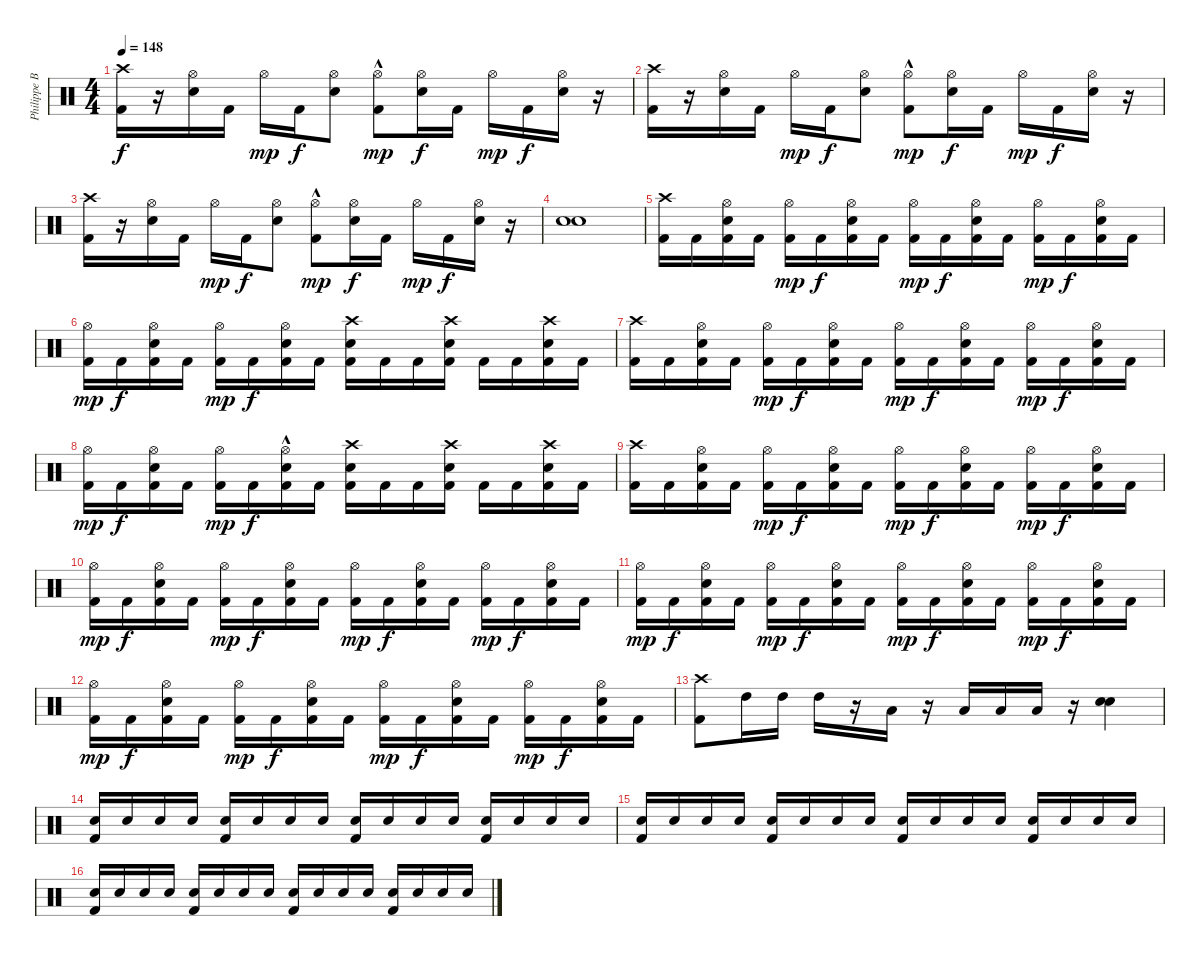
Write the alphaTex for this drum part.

\track ("Philippe Borda" "Philippe B") {instrument percussion}
\staff {score}
\articulation defaults
\ts (4 4)
\tempo 148
\clef neutral
\ks c
("Crash high (hit)" "Kick (hit) 2").16{dy f} r.16 ("Snare (hit) 2" "Hi-Hat (open)").16 "Kick (hit) 2".16 "Hi-Hat (open)".16{dy mp} "Kick (hit) 2".16{dy f} ("Snare (hit) 2" "Hi-Hat (open)").8 ("Kick (hit) 2"{hac} "Hi-Hat (open)").8{dy mp} ("Snare (hit) 2" "Hi-Hat (open)").16{dy f} "Kick (hit) 2".16 "Hi-Hat (open)".16{dy mp} "Kick (hit) 2".16{dy f} ("Snare (hit) 2" "Hi-Hat (open)").16 r.16 |
("Crash high (hit)" "Kick (hit) 2").16 r.16 ("Snare (hit) 2" "Hi-Hat (open)").16 "Kick (hit) 2".16 "Hi-Hat (open)".16{dy mp} "Kick (hit) 2".16{dy f} ("Snare (hit) 2" "Hi-Hat (open)").8 ("Kick (hit) 2"{hac} "Hi-Hat (open)").8{dy mp} ("Snare (hit) 2" "Hi-Hat (open)").16{dy f} "Kick (hit) 2".16 "Hi-Hat (open)".16{dy mp} "Kick (hit) 2".16{dy f} ("Snare (hit) 2" "Hi-Hat (open)").16 r.16 |
("Crash high (hit)" "Kick (hit) 2").16 r.16 ("Snare (hit) 2" "Hi-Hat (open)").16 "Kick (hit) 2".16 "Hi-Hat (open)".16{dy mp} "Kick (hit) 2".16{dy f} ("Snare (hit) 2" "Hi-Hat (open)").8 ("Kick (hit) 2"{hac} "Hi-Hat (open)").8{dy mp} ("Snare (hit) 2" "Hi-Hat (open)").16{dy f} "Kick (hit) 2".16 "Hi-Hat (open)".16{dy mp} "Kick (hit) 2".16{dy f} ("Snare (hit) 2" "Hi-Hat (open)").16 r.16 |
("Snare (hit) 2" "Snare (hit) 2").1 |
("Crash high (hit)" "Kick (hit) 2").16 "Kick (hit) 2".16 ("Kick (hit) 2" "Snare (hit) 2" "Hi-Hat (open)").16 "Kick (hit) 2".16 ("Kick (hit) 2" "Hi-Hat (open)").16{dy mp} "Kick (hit) 2".16{dy f} ("Kick (hit) 2" "Snare (hit) 2" "Hi-Hat (open)").16 "Kick (hit) 2".16 ("Kick (hit) 2" "Hi-Hat (open)").16{dy mp} "Kick (hit) 2".16{dy f} ("Kick (hit) 2" "Snare (hit) 2" "Hi-Hat (open)").16 "Kick (hit) 2".16 ("Kick (hit) 2" "Hi-Hat (open)").16{dy mp} "Kick (hit) 2".16{dy f} ("Kick (hit) 2" "Snare (hit) 2" "Hi-Hat (open)").16 "Kick (hit) 2".16 |
("Kick (hit) 2" "Hi-Hat (open)").16{dy mp} "Kick (hit) 2".16{dy f} ("Kick (hit) 2" "Snare (hit) 2" "Hi-Hat (open)").16 "Kick (hit) 2".16 ("Kick (hit) 2" "Hi-Hat (open)").16{dy mp} "Kick (hit) 2".16{dy f} ("Kick (hit) 2" "Hi-Hat (open)" "Snare (hit) 2").16 "Kick (hit) 2".16 ("Crash high (hit)" "Kick (hit) 2" "Snare (hit) 2").16 "Kick (hit) 2".16 "Kick (hit) 2".16 ("Crash high (hit)" "Kick (hit) 2" "Snare (hit) 2").16 "Kick (hit) 2".16 "Kick (hit) 2".16 ("Crash high (hit)" "Kick (hit) 2" "Snare (hit) 2").16 "Kick (hit) 2".16 |
("Crash high (hit)" "Kick (hit) 2").16 "Kick (hit) 2".16 ("Kick (hit) 2" "Snare (hit) 2" "Hi-Hat (open)").16 "Kick (hit) 2".16 ("Kick (hit) 2" "Hi-Hat (open)").16{dy mp} "Kick (hit) 2".16{dy f} ("Kick (hit) 2" "Snare (hit) 2" "Hi-Hat (open)").16 "Kick (hit) 2".16 ("Kick (hit) 2" "Hi-Hat (open)").16{dy mp} "Kick (hit) 2".16{dy f} ("Kick (hit) 2" "Snare (hit) 2" "Hi-Hat (open)").16 "Kick (hit) 2".16 ("Kick (hit) 2" "Hi-Hat (open)").16{dy mp} "Kick (hit) 2".16{dy f} ("Kick (hit) 2" "Snare (hit) 2" "Hi-Hat (open)").16 "Kick (hit) 2".16 |
("Kick (hit) 2" "Hi-Hat (open)").16{dy mp} "Kick (hit) 2".16{dy f} ("Kick (hit) 2" "Snare (hit) 2" "Hi-Hat (open)").16 "Kick (hit) 2".16 ("Kick (hit) 2" "Hi-Hat (open)").16{dy mp} "Kick (hit) 2".16{dy f} ("Kick (hit) 2" "Hi-Hat (open)"{hac} "Snare (hit) 2").16 "Kick (hit) 2".16 ("Crash high (hit)" "Kick (hit) 2" "Snare (hit) 2").16 "Kick (hit) 2".16 "Kick (hit) 2".16 ("Crash high (hit)" "Kick (hit) 2" "Snare (hit) 2").16 "Kick (hit) 2".16 "Kick (hit) 2".16 ("Crash high (hit)" "Kick (hit) 2" "Snare (hit) 2").16 "Kick (hit) 2".16 |
("Crash high (hit)" "Kick (hit) 2").16 "Kick (hit) 2".16 ("Kick (hit) 2" "Snare (hit) 2" "Hi-Hat (open)").16 "Kick (hit) 2".16 ("Kick (hit) 2" "Hi-Hat (open)").16{dy mp} "Kick (hit) 2".16{dy f} ("Kick (hit) 2" "Snare (hit) 2" "Hi-Hat (open)").16 "Kick (hit) 2".16 ("Kick (hit) 2" "Hi-Hat (open)").16{dy mp} "Kick (hit) 2".16{dy f} ("Kick (hit) 2" "Snare (hit) 2" "Hi-Hat (open)").16 "Kick (hit) 2".16 ("Kick (hit) 2" "Hi-Hat (open)").16{dy mp} "Kick (hit) 2".16{dy f} ("Kick (hit) 2" "Hi-Hat (open)" "Snare (hit) 2").16 "Kick (hit) 2".16 |
("Kick (hit) 2" "Hi-Hat (open)").16{dy mp} "Kick (hit) 2".16{dy f} ("Kick (hit) 2" "Hi-Hat (open)" "Snare (hit) 2").16 "Kick (hit) 2".16 ("Kick (hit) 2" "Hi-Hat (open)").16{dy mp} "Kick (hit) 2".16{dy f} ("Kick (hit) 2" "Hi-Hat (open)" "Snare (hit) 2").16 "Kick (hit) 2".16 ("Kick (hit) 2" "Hi-Hat (open)").16{dy mp} "Kick (hit) 2".16{dy f} ("Kick (hit) 2" "Hi-Hat (open)" "Snare (hit) 2").16 "Kick (hit) 2".16 ("Kick (hit) 2" "Hi-Hat (open)").16{dy mp} "Kick (hit) 2".16{dy f} ("Kick (hit) 2" "Snare (hit) 2" "Hi-Hat (open)").16 "Kick (hit) 2".16 |
("Kick (hit) 2" "Hi-Hat (open)").16{dy mp} "Kick (hit) 2".16{dy f} ("Kick (hit) 2" "Hi-Hat (open)" "Snare (hit) 2").16 "Kick (hit) 2".16 ("Kick (hit) 2" "Hi-Hat (open)").16{dy mp} "Kick (hit) 2".16{dy f} ("Kick (hit) 2" "Hi-Hat (open)" "Snare (hit) 2").16 "Kick (hit) 2".16 ("Kick (hit) 2" "Hi-Hat (open)").16{dy mp} "Kick (hit) 2".16{dy f} ("Kick (hit) 2" "Hi-Hat (open)" "Snare (hit) 2").16 "Kick (hit) 2".16 ("Kick (hit) 2" "Hi-Hat (open)").16{dy mp} "Kick (hit) 2".16{dy f} ("Kick (hit) 2" "Snare (hit) 2" "Hi-Hat (open)").16 "Kick (hit) 2".16 |
("Kick (hit) 2" "Hi-Hat (open)").16{dy mp} "Kick (hit) 2".16{dy f} ("Kick (hit) 2" "Hi-Hat (open)" "Snare (hit) 2").16 "Kick (hit) 2".16 ("Kick (hit) 2" "Hi-Hat (open)").16{dy mp} "Kick (hit) 2".16{dy f} ("Kick (hit) 2" "Hi-Hat (open)" "Snare (hit) 2").16 "Kick (hit) 2".16 ("Kick (hit) 2" "Hi-Hat (open)").16{dy mp} "Kick (hit) 2".16{dy f} ("Kick (hit) 2" "Hi-Hat (open)" "Snare (hit) 2").16 "Kick (hit) 2".16 ("Kick (hit) 2" "Hi-Hat (open)").16{dy mp} "Kick (hit) 2".16{dy f} ("Kick (hit) 2" "Snare (hit) 2" "Hi-Hat (open)").16 "Kick (hit) 2".16 |
("Crash high (hit)" "Kick (hit) 2").8 "High Tom (hit)".16 "High Tom (hit)".16 "High Tom (hit)".16 r.16 "Low Tom (hit)".16 r.16 "Low Tom (hit)".16 "Low Tom (hit)".16 "Low Tom (hit)".16 r.16 ("Snare (hit) 2" "Snare (hit) 2").4 |
("Snare (hit) 2" "Kick (hit) 2").16 "Snare (hit) 2".16 "Snare (hit) 2".16 "Snare (hit) 2".16 ("Snare (hit) 2" "Kick (hit) 2").16 "Snare (hit) 2".16 "Snare (hit) 2".16 "Snare (hit) 2".16 ("Snare (hit) 2" "Kick (hit) 2").16 "Snare (hit) 2".16 "Snare (hit) 2".16 "Snare (hit) 2".16 ("Snare (hit) 2" "Kick (hit) 2").16 "Snare (hit) 2".16 "Snare (hit) 2".16 "Snare (hit) 2".16 |
("Kick (hit) 2" "Snare (hit) 2").16 "Snare (hit) 2".16 "Snare (hit) 2".16 "Snare (hit) 2".16 ("Kick (hit) 2" "Snare (hit) 2").16 "Snare (hit) 2".16 "Snare (hit) 2".16 "Snare (hit) 2".16 ("Kick (hit) 2" "Snare (hit) 2").16 "Snare (hit) 2".16 "Snare (hit) 2".16 "Snare (hit) 2".16 ("Kick (hit) 2" "Snare (hit) 2").16 "Snare (hit) 2".16 "Snare (hit) 2".16 "Snare (hit) 2".16 |
("Kick (hit) 2" "Snare (hit) 2").16 "Snare (hit) 2".16 "Snare (hit) 2".16 "Snare (hit) 2".16 ("Kick (hit) 2" "Snare (hit) 2").16 "Snare (hit) 2".16 "Snare (hit) 2".16 "Snare (hit) 2".16 ("Kick (hit) 2" "Snare (hit) 2").16 "Snare (hit) 2".16 "Snare (hit) 2".16 "Snare (hit) 2".16 ("Kick (hit) 2" "Snare (hit) 2").16 "Snare (hit) 2".16 "Snare (hit) 2".16 "Snare (hit) 2".16
